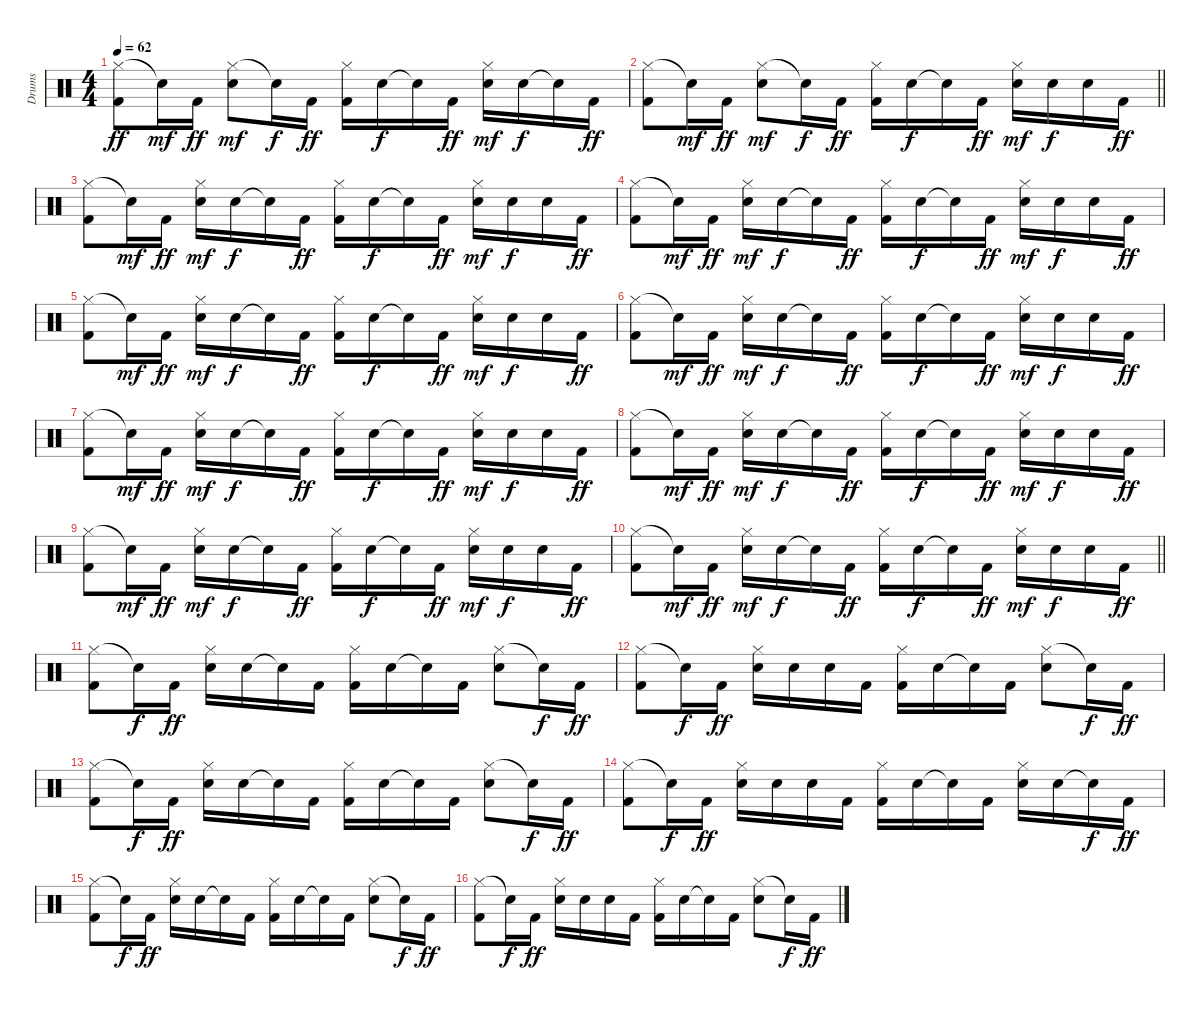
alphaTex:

\track ("Drums" "Drums") {instrument percussion}
\staff {score}
\articulation defaults
\ts (4 4)
\tempo 62
\clef neutral
\ks c
("Hi-Hat (closed)" "Kick (hit) 2").8{dy ff} "Snare (hit)"{t}.16{dy mf} "Kick (hit) 2".16{dy ff} ("Hi-Hat (closed)" "Snare (hit) 2").8{dy mf} "Snare (hit)"{t}.16{dy f} "Kick (hit) 2".16{dy ff} ("Hi-Hat (closed)" "Kick (hit) 2").16 "Snare (hit) 2".16{dy f} "Snare (hit)"{t}.16 "Kick (hit) 2".16{dy ff} ("Hi-Hat (closed)" "Snare (hit) 2").16{dy mf} "Snare (hit) 2".16{dy f} "Snare (hit) 2"{t}.16 "Kick (hit) 2".16{dy ff} |
\barLineRight lightlight
("Hi-Hat (closed)" "Kick (hit) 2").8 "Snare (hit)"{t}.16{dy mf} "Kick (hit) 2".16{dy ff} ("Hi-Hat (closed)" "Snare (hit) 2").8{dy mf} "Snare (hit)"{t}.16{dy f} "Kick (hit) 2".16{dy ff} ("Hi-Hat (closed)" "Kick (hit) 2").16 "Snare (hit) 2".16{dy f} "Snare (hit)"{t}.16 "Kick (hit) 2".16{dy ff} ("Hi-Hat (closed)" "Snare (hit) 2").16{dy mf} "Snare (hit) 2".16{dy f} "Snare (hit) 2".16 "Kick (hit) 2".16{dy ff} |
\section ("" "")
("Hi-Hat (closed)" "Kick (hit) 2").8 "Snare (hit)"{t}.16{dy mf} "Kick (hit) 2".16{dy ff} ("Hi-Hat (closed)" "Snare (hit) 2").16{dy mf} "Snare (hit) 2".16{dy f} "Snare (hit)"{t}.16 "Kick (hit) 2".16{dy ff} ("Hi-Hat (closed)" "Kick (hit) 2").16 "Snare (hit) 2".16{dy f} "Snare (hit)"{t}.16 "Kick (hit) 2".16{dy ff} ("Hi-Hat (closed)" "Snare (hit) 2").16{dy mf} "Snare (hit) 2".16{dy f} "Snare (hit) 2".16 "Kick (hit) 2".16{dy ff} |
("Hi-Hat (closed)" "Kick (hit) 2").8 "Snare (hit)"{t}.16{dy mf} "Kick (hit) 2".16{dy ff} ("Hi-Hat (closed)" "Snare (hit) 2").16{dy mf} "Snare (hit) 2".16{dy f} "Snare (hit)"{t}.16 "Kick (hit) 2".16{dy ff} ("Hi-Hat (closed)" "Kick (hit) 2").16 "Snare (hit) 2".16{dy f} "Snare (hit)"{t}.16 "Kick (hit) 2".16{dy ff} ("Hi-Hat (closed)" "Snare (hit) 2").16{dy mf} "Snare (hit) 2".16{dy f} "Snare (hit) 2".16 "Kick (hit) 2".16{dy ff} |
("Hi-Hat (closed)" "Kick (hit) 2").8 "Snare (hit)"{t}.16{dy mf} "Kick (hit) 2".16{dy ff} ("Hi-Hat (closed)" "Snare (hit) 2").16{dy mf} "Snare (hit) 2".16{dy f} "Snare (hit)"{t}.16 "Kick (hit) 2".16{dy ff} ("Hi-Hat (closed)" "Kick (hit) 2").16 "Snare (hit) 2".16{dy f} "Snare (hit)"{t}.16 "Kick (hit) 2".16{dy ff} ("Hi-Hat (closed)" "Snare (hit) 2").16{dy mf} "Snare (hit) 2".16{dy f} "Snare (hit) 2".16 "Kick (hit) 2".16{dy ff} |
("Hi-Hat (closed)" "Kick (hit) 2").8 "Snare (hit)"{t}.16{dy mf} "Kick (hit) 2".16{dy ff} ("Hi-Hat (closed)" "Snare (hit) 2").16{dy mf} "Snare (hit) 2".16{dy f} "Snare (hit)"{t}.16 "Kick (hit) 2".16{dy ff} ("Hi-Hat (closed)" "Kick (hit) 2").16 "Snare (hit) 2".16{dy f} "Snare (hit)"{t}.16 "Kick (hit) 2".16{dy ff} ("Hi-Hat (closed)" "Snare (hit) 2").16{dy mf} "Snare (hit) 2".16{dy f} "Snare (hit) 2".16 "Kick (hit) 2".16{dy ff} |
("Hi-Hat (closed)" "Kick (hit) 2").8 "Snare (hit)"{t}.16{dy mf} "Kick (hit) 2".16{dy ff} ("Hi-Hat (closed)" "Snare (hit) 2").16{dy mf} "Snare (hit) 2".16{dy f} "Snare (hit)"{t}.16 "Kick (hit) 2".16{dy ff} ("Hi-Hat (closed)" "Kick (hit) 2").16 "Snare (hit) 2".16{dy f} "Snare (hit)"{t}.16 "Kick (hit) 2".16{dy ff} ("Hi-Hat (closed)" "Snare (hit) 2").16{dy mf} "Snare (hit) 2".16{dy f} "Snare (hit) 2".16 "Kick (hit) 2".16{dy ff} |
("Hi-Hat (closed)" "Kick (hit) 2").8 "Snare (hit)"{t}.16{dy mf} "Kick (hit) 2".16{dy ff} ("Hi-Hat (closed)" "Snare (hit) 2").16{dy mf} "Snare (hit) 2".16{dy f} "Snare (hit)"{t}.16 "Kick (hit) 2".16{dy ff} ("Hi-Hat (closed)" "Kick (hit) 2").16 "Snare (hit) 2".16{dy f} "Snare (hit)"{t}.16 "Kick (hit) 2".16{dy ff} ("Hi-Hat (closed)" "Snare (hit) 2").16{dy mf} "Snare (hit) 2".16{dy f} "Snare (hit) 2".16 "Kick (hit) 2".16{dy ff} |
("Hi-Hat (closed)" "Kick (hit) 2").8 "Snare (hit)"{t}.16{dy mf} "Kick (hit) 2".16{dy ff} ("Hi-Hat (closed)" "Snare (hit) 2").16{dy mf} "Snare (hit) 2".16{dy f} "Snare (hit)"{t}.16 "Kick (hit) 2".16{dy ff} ("Hi-Hat (closed)" "Kick (hit) 2").16 "Snare (hit) 2".16{dy f} "Snare (hit)"{t}.16 "Kick (hit) 2".16{dy ff} ("Hi-Hat (closed)" "Snare (hit) 2").16{dy mf} "Snare (hit) 2".16{dy f} "Snare (hit) 2".16 "Kick (hit) 2".16{dy ff} |
\barLineRight lightlight
("Hi-Hat (closed)" "Kick (hit) 2").8 "Snare (hit)"{t}.16{dy mf} "Kick (hit) 2".16{dy ff} ("Hi-Hat (closed)" "Snare (hit) 2").16{dy mf} "Snare (hit) 2".16{dy f} "Snare (hit)"{t}.16 "Kick (hit) 2".16{dy ff} ("Hi-Hat (closed)" "Kick (hit) 2").16 "Snare (hit) 2".16{dy f} "Snare (hit)"{t}.16 "Kick (hit) 2".16{dy ff} ("Hi-Hat (closed)" "Snare (hit) 2").16{dy mf} "Snare (hit) 2".16{dy f} "Snare (hit) 2".16 "Kick (hit) 2".16{dy ff} |
\section ("" "")
("Hi-Hat (closed)" "Kick (hit) 2").8 "Snare (hit)"{t}.16{dy f} "Kick (hit) 2".16{dy ff} ("Hi-Hat (closed)" "Snare (hit) 2").16 "Snare (hit) 2".16 "Snare (hit)"{t}.16 "Kick (hit) 2".16 ("Hi-Hat (closed)" "Kick (hit) 2").16 "Snare (hit) 2".16 "Snare (hit)"{t}.16 "Kick (hit) 2".16 ("Hi-Hat (closed)" "Snare (hit) 2").8 "Snare (hit) 2"{t}.16{dy f} "Kick (hit) 2".16{dy ff} |
("Hi-Hat (closed)" "Kick (hit) 2").8 "Snare (hit)"{t}.16{dy f} "Kick (hit) 2".16{dy ff} ("Hi-Hat (closed)" "Snare (hit) 2").16 "Snare (hit) 2".16 "Snare (hit) 2".16 "Kick (hit) 2".16 ("Hi-Hat (closed)" "Kick (hit) 2").16 "Snare (hit) 2".16 "Snare (hit)"{t}.16 "Kick (hit) 2".16 ("Hi-Hat (closed)" "Snare (hit) 2").8 "Snare (hit) 2"{t}.16{dy f} "Kick (hit) 2".16{dy ff} |
("Hi-Hat (closed)" "Kick (hit) 2").8 "Snare (hit)"{t}.16{dy f} "Kick (hit) 2".16{dy ff} ("Hi-Hat (closed)" "Snare (hit) 2").16 "Snare (hit) 2".16 "Snare (hit)"{t}.16 "Kick (hit) 2".16 ("Hi-Hat (closed)" "Kick (hit) 2").16 "Snare (hit) 2".16 "Snare (hit)"{t}.16 "Kick (hit) 2".16 ("Hi-Hat (closed)" "Snare (hit) 2").8 "Snare (hit) 2"{t}.16{dy f} "Kick (hit) 2".16{dy ff} |
("Hi-Hat (closed)" "Kick (hit) 2").8 "Snare (hit)"{t}.16{dy f} "Kick (hit) 2".16{dy ff} ("Hi-Hat (closed)" "Snare (hit) 2").16 "Snare (hit) 2".16 "Snare (hit) 2".16 "Kick (hit) 2".16 ("Hi-Hat (closed)" "Kick (hit) 2").16 "Snare (hit) 2".16 "Snare (hit)"{t}.16 "Kick (hit) 2".16 ("Hi-Hat (closed)" "Snare (hit) 2").16 "Snare (hit) 2".16 "Snare (hit) 2"{t}.16{dy f} "Kick (hit) 2".16{dy ff} |
("Hi-Hat (closed)" "Kick (hit) 2").8 "Snare (hit)"{t}.16{dy f} "Kick (hit) 2".16{dy ff} ("Hi-Hat (closed)" "Snare (hit) 2").16 "Snare (hit) 2".16 "Snare (hit)"{t}.16 "Kick (hit) 2".16 ("Hi-Hat (closed)" "Kick (hit) 2").16 "Snare (hit) 2".16 "Snare (hit)"{t}.16 "Kick (hit) 2".16 ("Hi-Hat (closed)" "Snare (hit) 2").8 "Snare (hit) 2"{t}.16{dy f} "Kick (hit) 2".16{dy ff} |
("Hi-Hat (closed)" "Kick (hit) 2").8 "Snare (hit)"{t}.16{dy f} "Kick (hit) 2".16{dy ff} ("Hi-Hat (closed)" "Snare (hit) 2").16 "Snare (hit) 2".16 "Snare (hit) 2".16 "Kick (hit) 2".16 ("Hi-Hat (closed)" "Kick (hit) 2").16 "Snare (hit) 2".16 "Snare (hit)"{t}.16 "Kick (hit) 2".16 ("Hi-Hat (closed)" "Snare (hit) 2").8 "Snare (hit) 2"{t}.16{dy f} "Kick (hit) 2".16{dy ff}
